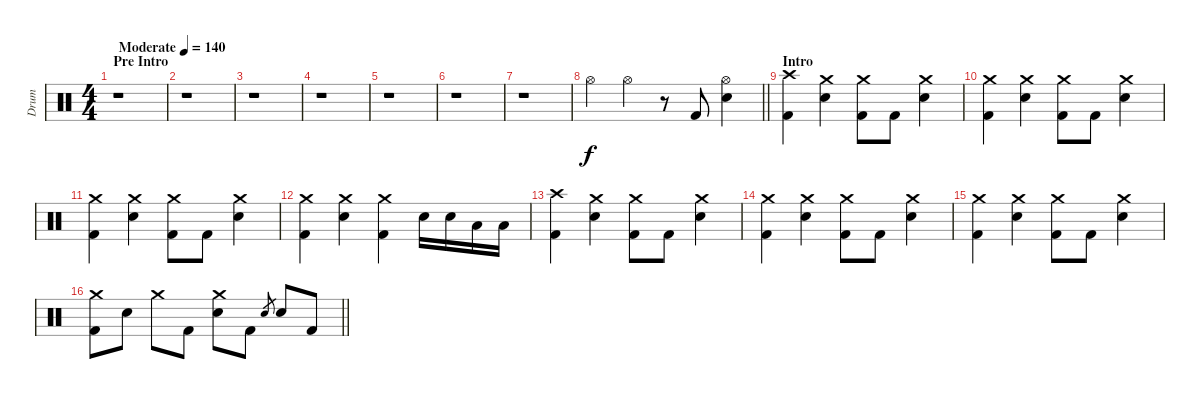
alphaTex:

\track ("Drum" "Drum") {instrument percussion}
\staff {score}
\articulation defaults
\ts (4 4)
\section ("" "Pre Intro")
\tempo (140 "Moderate")
\clef neutral
\ks c
r.1{dy f} |
r.1 |
r.1 |
r.1 |
r.1 |
r.1 |
r.1 |
\barLineRight lightlight "Hi-Hat (open)".4 "Hi-Hat (open)".4
r.8 "Kick (hit) 2".8 ("Hi-Hat (open)" "Electric Snare (hit)").4 |
\section ("" "Intro")
("Crash high (hit)" "Kick (hit) 2").4 ("Crash medium (hit)" "Electric Snare (hit)").4 ("Crash medium (hit)" "Kick (hit) 2").8 "Kick (hit) 2".8 ("Crash medium (hit)" "Electric Snare (hit)").4 |
("Crash medium (hit)" "Kick (hit) 2").4 ("Crash medium (hit)" "Electric Snare (hit)").4 ("Crash medium (hit)" "Kick (hit) 2").8 "Kick (hit) 2".8 ("Crash medium (hit)" "Electric Snare (hit)").4 |
("Crash medium (hit)" "Kick (hit) 2").4 ("Crash medium (hit)" "Electric Snare (hit)").4 ("Crash medium (hit)" "Kick (hit) 2").8 "Kick (hit) 2".8 ("Crash medium (hit)" "Electric Snare (hit)").4 |
("Crash medium (hit)" "Kick (hit) 2").4 ("Crash medium (hit)" "Electric Snare (hit)").4 ("Crash medium (hit)" "Kick (hit) 2").4 "Electric Snare (hit)".16 "Electric Snare (hit)".16 "Low Tom (hit)".16 "Low Tom (hit)".16 |
("Crash high (hit)" "Kick (hit) 2").4 ("Crash medium (hit)" "Electric Snare (hit)").4 ("Crash medium (hit)" "Kick (hit) 2").8 "Kick (hit) 2".8 ("Crash medium (hit)" "Electric Snare (hit)").4 |
("Crash medium (hit)" "Kick (hit) 2").4 ("Crash medium (hit)" "Electric Snare (hit)").4 ("Crash medium (hit)" "Kick (hit) 2").8 "Kick (hit) 2".8 ("Crash medium (hit)" "Electric Snare (hit)").4 |
("Crash medium (hit)" "Kick (hit) 2").4 ("Crash medium (hit)" "Electric Snare (hit)").4 ("Crash medium (hit)" "Kick (hit) 2").8 "Kick (hit) 2".8 ("Crash medium (hit)" "Electric Snare (hit)").4 |
\barLineRight lightlight
("Crash medium (hit)" "Kick (hit) 2").8 "Electric Snare (hit)".8 "Crash medium (hit)".8 "Kick (hit) 2".8 ("Crash medium (hit)" "Electric Snare (hit)").8 "Kick (hit) 2".8 "Electric Snare (hit)".8{gr} "Electric Snare (hit)".8 "Kick (hit) 2".8
